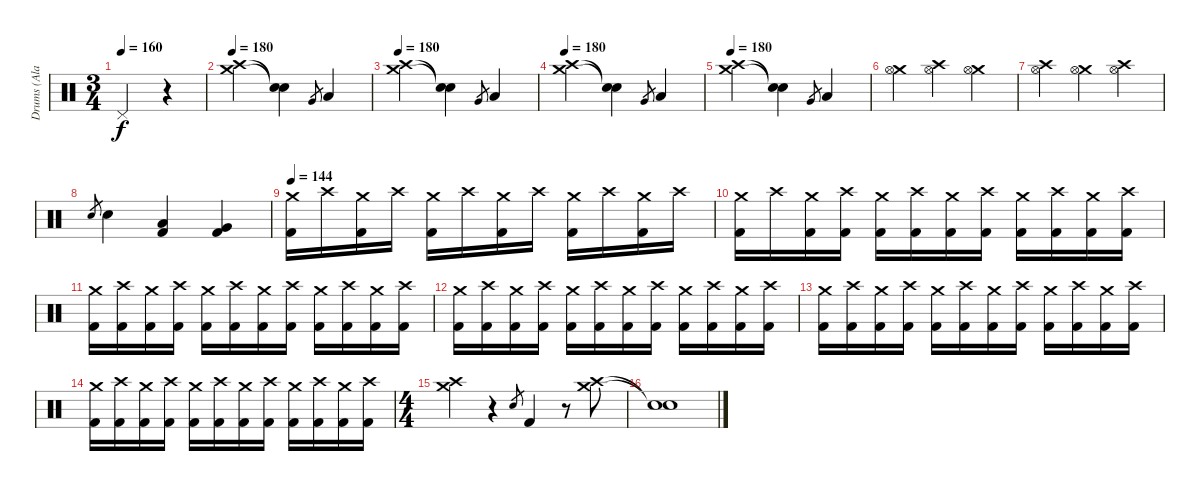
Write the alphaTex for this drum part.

\track ("Drums (Ala Pyle)" "Drums (Ala") {instrument percussion}
\staff {score}
\articulation defaults
\ts (3 4)
\tempo 160
\clef neutral
\ks c "Pedal Hi-Hat (hit)".2{dy f}
r.4 |
\tempo 180
("Crash high (hit)" "Crash medium (hit)").4 ("Snare (hit)"{t} "Snare (hit)"{t}).4 "Very Low Tom (hit)".8{gr} "Low Floor Tom (hit)".4 |
\tempo 180
("Crash high (hit)" "Crash medium (hit)").4 ("Snare (hit)"{t} "Snare (hit)"{t}).4 "Very Low Tom (hit)".8{gr} "Low Floor Tom (hit)".4 |
\tempo 180
("Crash high (hit)" "Crash medium (hit)").4 ("Snare (hit)"{t} "Snare (hit)"{t}).4 "Very Low Tom (hit)".8{gr} "Low Floor Tom (hit)".4 |
\tempo 180
("Crash high (hit)" "Crash medium (hit)").4 ("Snare (hit)"{t} "Snare (hit)"{t}).4 "Very Low Tom (hit)".8{gr} "Low Floor Tom (hit)".4 |
("Crash medium (hit)" "Hi-Hat (open)").4 ("Crash high (hit)" "Hi-Hat (open)").4 ("Crash medium (hit)" "Hi-Hat (open)").4 |
("Crash high (hit)" "Hi-Hat (open)").4 ("Crash medium (hit)" "Hi-Hat (open)").4 ("Crash high (hit)" "Hi-Hat (open)").4 |
"Electric Snare (hit)".8{gr} "Electric Snare (hit)".4 ("Low Tom (hit)" "Kick (hit) 2").4 ("Very Low Tom (hit)" "Kick (hit) 2").4 |
\tempo 144
("Crash medium (hit)" "Kick (hit) 2").16 "Crash high (hit)".16 ("Crash medium (hit)" "Kick (hit) 2").16 "Crash high (hit)".16 ("Crash medium (hit)" "Kick (hit) 2").16 "Crash high (hit)".16 ("Crash medium (hit)" "Kick (hit) 2").16 "Crash high (hit)".16 ("Crash medium (hit)" "Kick (hit) 2").16 "Crash high (hit)".16 ("Crash medium (hit)" "Kick (hit) 2").16 "Crash high (hit)".16 |
("Crash medium (hit)" "Kick (hit) 2").16 "Crash high (hit)".16 ("Crash medium (hit)" "Kick (hit) 2").16 ("Crash high (hit)" "Kick (hit) 2").16 ("Crash medium (hit)" "Kick (hit) 2").16 ("Crash high (hit)" "Kick (hit) 2").16 ("Crash medium (hit)" "Kick (hit) 2").16 ("Crash high (hit)" "Kick (hit) 2").16 ("Crash medium (hit)" "Kick (hit) 2").16 ("Crash high (hit)" "Kick (hit) 2").16 ("Crash medium (hit)" "Kick (hit) 2").16 ("Crash high (hit)" "Kick (hit) 2").16 |
("Crash medium (hit)" "Kick (hit) 2").16 ("Crash high (hit)" "Kick (hit) 2").16 ("Crash medium (hit)" "Kick (hit) 2").16 ("Crash high (hit)" "Kick (hit) 2").16 ("Crash medium (hit)" "Kick (hit) 2").16 ("Crash high (hit)" "Kick (hit) 2").16 ("Crash medium (hit)" "Kick (hit) 2").16 ("Crash high (hit)" "Kick (hit) 2").16 ("Crash medium (hit)" "Kick (hit) 2").16 ("Crash high (hit)" "Kick (hit) 2").16 ("Crash medium (hit)" "Kick (hit) 2").16 ("Crash high (hit)" "Kick (hit) 2").16 |
("Crash medium (hit)" "Kick (hit) 2").16 ("Crash high (hit)" "Kick (hit) 2").16 ("Crash medium (hit)" "Kick (hit) 2").16 ("Crash high (hit)" "Kick (hit) 2").16 ("Crash medium (hit)" "Kick (hit) 2").16 ("Crash high (hit)" "Kick (hit) 2").16 ("Crash medium (hit)" "Kick (hit) 2").16 ("Crash high (hit)" "Kick (hit) 2").16 ("Crash medium (hit)" "Kick (hit) 2").16 ("Crash high (hit)" "Kick (hit) 2").16 ("Crash medium (hit)" "Kick (hit) 2").16 ("Crash high (hit)" "Kick (hit) 2").16 |
("Crash medium (hit)" "Kick (hit) 2").16 ("Crash high (hit)" "Kick (hit) 2").16 ("Crash medium (hit)" "Kick (hit) 2").16 ("Crash high (hit)" "Kick (hit) 2").16 ("Crash medium (hit)" "Kick (hit) 2").16 ("Crash high (hit)" "Kick (hit) 2").16 ("Crash medium (hit)" "Kick (hit) 2").16 ("Crash high (hit)" "Kick (hit) 2").16 ("Crash medium (hit)" "Kick (hit) 2").16 ("Crash high (hit)" "Kick (hit) 2").16 ("Crash medium (hit)" "Kick (hit) 2").16 ("Crash high (hit)" "Kick (hit) 2").16 |
("Crash medium (hit)" "Kick (hit) 2").16 ("Crash high (hit)" "Kick (hit) 2").16 ("Crash medium (hit)" "Kick (hit) 2").16 ("Crash high (hit)" "Kick (hit) 2").16 ("Crash medium (hit)" "Kick (hit) 2").16 ("Crash high (hit)" "Kick (hit) 2").16 ("Crash medium (hit)" "Kick (hit) 2").16 ("Crash high (hit)" "Kick (hit) 2").16 ("Crash medium (hit)" "Kick (hit) 2").16 ("Crash high (hit)" "Kick (hit) 2").16 ("Crash medium (hit)" "Kick (hit) 2").16 ("Crash high (hit)" "Kick (hit) 2").16 |
\ts (4 4)
("Crash medium (hit)" "Crash high (hit)").4 r.4 "Electric Snare (hit)".8{gr} "Kick (hit) 2".4 r.8 ("Crash high (hit)" "Crash medium (hit)").8 |
("Snare (hit)"{t} "Snare (hit)"{t}).1
